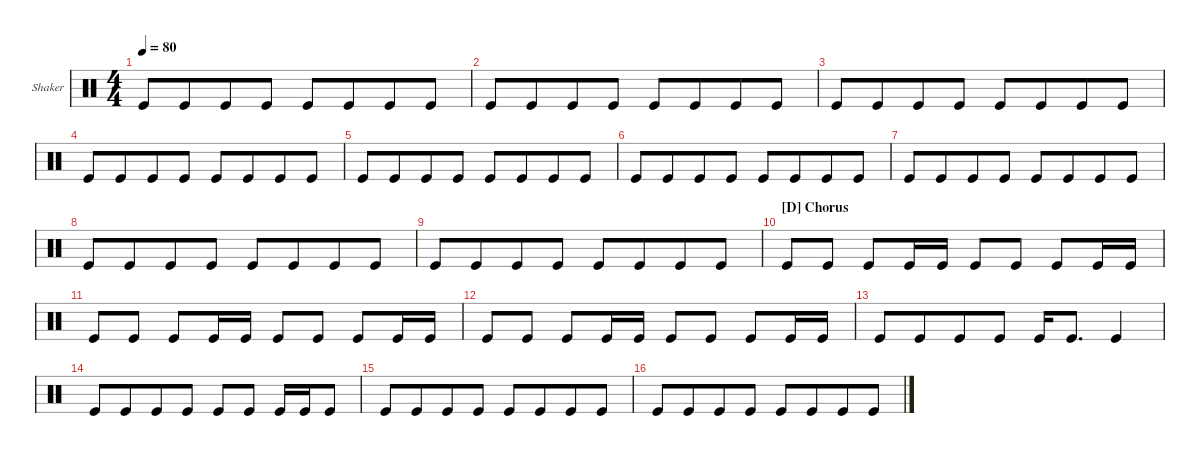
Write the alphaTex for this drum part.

\defaultSystemsLayout 4
\hideDynamics
\bracketExtendMode groupsimilarinstruments
\firstSystemTrackNameOrientation horizontal
\otherSystemsTrackNameOrientation horizontal
\track ("Shaker" "Shaker") {multiBarRest instrument percussion}
\staff {score}
\articulation defaults
\ts (4 4)
\tempo 80
\clef neutral
\ks c "Kick (hit)".8{dy p} "Kick (hit)".8{beam merge} "Kick (hit)".8 "Kick (hit)".8 "Kick (hit)".8 "Kick (hit)".8{beam merge} "Kick (hit)".8 "Kick (hit)".8
|
"Kick (hit)".8 "Kick (hit)".8{beam merge} "Kick (hit)".8 "Kick (hit)".8 "Kick (hit)".8 "Kick (hit)".8{beam merge} "Kick (hit)".8 "Kick (hit)".8 |
"Kick (hit)".8 "Kick (hit)".8{beam merge} "Kick (hit)".8 "Kick (hit)".8 "Kick (hit)".8 "Kick (hit)".8{beam merge} "Kick (hit)".8 "Kick (hit)".8 |
"Kick (hit)".8 "Kick (hit)".8{beam merge} "Kick (hit)".8 "Kick (hit)".8 "Kick (hit)".8 "Kick (hit)".8{beam merge} "Kick (hit)".8 "Kick (hit)".8 |
"Kick (hit)".8 "Kick (hit)".8{beam merge} "Kick (hit)".8 "Kick (hit)".8 "Kick (hit)".8 "Kick (hit)".8{beam merge} "Kick (hit)".8 "Kick (hit)".8 |
"Kick (hit)".8 "Kick (hit)".8{beam merge} "Kick (hit)".8 "Kick (hit)".8 "Kick (hit)".8 "Kick (hit)".8{beam merge} "Kick (hit)".8 "Kick (hit)".8 |
"Kick (hit)".8 "Kick (hit)".8{beam merge} "Kick (hit)".8 "Kick (hit)".8 "Kick (hit)".8 "Kick (hit)".8{beam merge} "Kick (hit)".8 "Kick (hit)".8 |
"Kick (hit)".8 "Kick (hit)".8{beam merge} "Kick (hit)".8 "Kick (hit)".8 "Kick (hit)".8 "Kick (hit)".8{beam merge} "Kick (hit)".8 "Kick (hit)".8 |
"Kick (hit)".8 "Kick (hit)".8{beam merge} "Kick (hit)".8 "Kick (hit)".8 "Kick (hit)".8 "Kick (hit)".8{beam merge} "Kick (hit)".8 "Kick (hit)".8 |
\section ("D" "Chorus")
"Kick (hit)".8 "Kick (hit)".8 "Kick (hit)".8 "Kick (hit)".16 "Kick (hit)".16 "Kick (hit)".8 "Kick (hit)".8 "Kick (hit)".8 "Kick (hit)".16 "Kick (hit)".16 |
"Kick (hit)".8 "Kick (hit)".8 "Kick (hit)".8 "Kick (hit)".16 "Kick (hit)".16 "Kick (hit)".8 "Kick (hit)".8 "Kick (hit)".8 "Kick (hit)".16 "Kick (hit)".16 |
"Kick (hit)".8 "Kick (hit)".8 "Kick (hit)".8 "Kick (hit)".16 "Kick (hit)".16 "Kick (hit)".8 "Kick (hit)".8 "Kick (hit)".8 "Kick (hit)".16 "Kick (hit)".16 |
"Kick (hit)".8 "Kick (hit)".8{beam merge} "Kick (hit)".8 "Kick (hit)".8 "Kick (hit)".16 "Kick (hit)".8{d} "Kick (hit)".4 |
"Kick (hit)".8 "Kick (hit)".8{beam merge} "Kick (hit)".8 "Kick (hit)".8 "Kick (hit)".8 "Kick (hit)".8 "Kick (hit)".16 "Kick (hit)".16 "Kick (hit)".8 |
"Kick (hit)".8 "Kick (hit)".8{beam merge} "Kick (hit)".8 "Kick (hit)".8 "Kick (hit)".8 "Kick (hit)".8{beam merge} "Kick (hit)".8 "Kick (hit)".8 |
"Kick (hit)".8 "Kick (hit)".8{beam merge} "Kick (hit)".8 "Kick (hit)".8 "Kick (hit)".8 "Kick (hit)".8{beam merge} "Kick (hit)".8 "Kick (hit)".8
